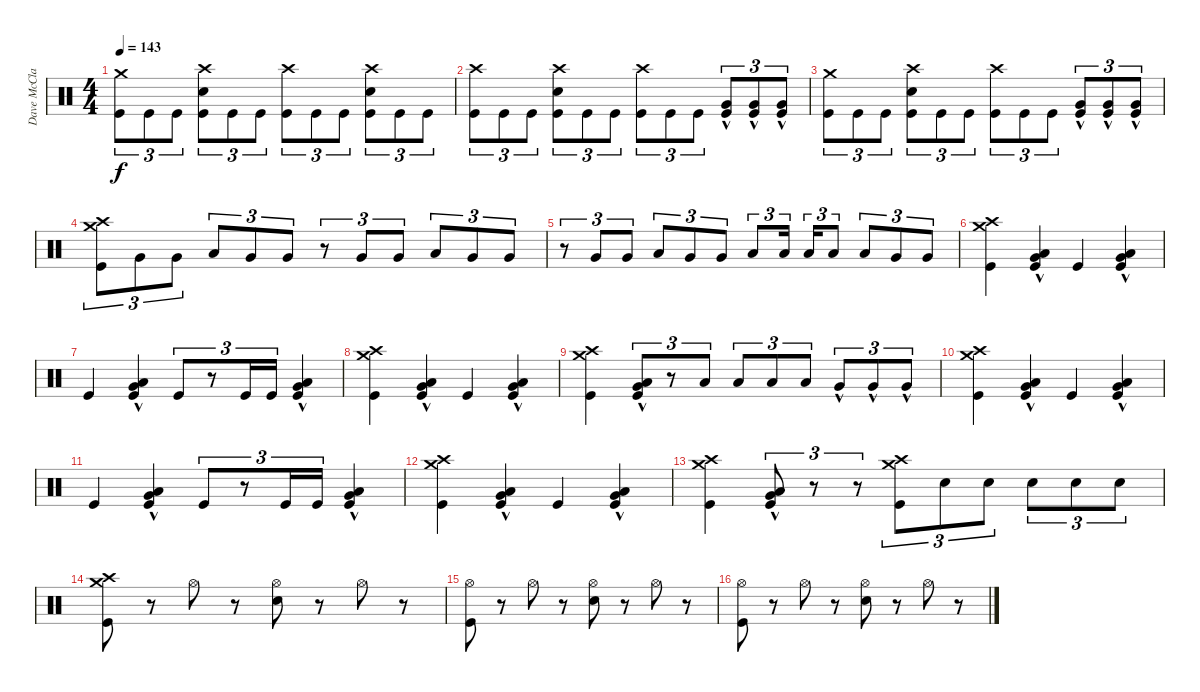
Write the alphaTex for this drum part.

\track ("Dave McClaine" "Dave McCla") {instrument percussion}
\staff {score}
\articulation defaults
\ts (4 4)
\tempo 143
\clef neutral
\ks c
("Kick (hit)" "Crash medium (hit)").8{tu (3 2) dy f} "Kick (hit)".8{tu (3 2)} "Kick (hit)".8{tu (3 2)} ("Kick (hit)" "Snare (hit) 2" "Crash high (hit)").8{tu (3 2)} "Kick (hit)".8{tu (3 2)} "Kick (hit)".8{tu (3 2)} ("Kick (hit)" "Crash high (hit)").8{tu (3 2)} "Kick (hit)".8{tu (3 2)} "Kick (hit)".8{tu (3 2)} ("Kick (hit)" "Snare (hit) 2" "Crash high (hit)").8{tu (3 2)} "Kick (hit)".8{tu (3 2)} "Kick (hit)".8{tu (3 2)} |
("Kick (hit)" "Crash high (hit)").8{tu (3 2)} "Kick (hit)".8{tu (3 2)} "Kick (hit)".8{tu (3 2)} ("Kick (hit)" "Snare (hit) 2" "Crash high (hit)").8{tu (3 2)} "Kick (hit)".8{tu (3 2)} "Kick (hit)".8{tu (3 2)} ("Kick (hit)" "Crash high (hit)").8{tu (3 2)} "Kick (hit)".8{tu (3 2)} "Kick (hit)".8{tu (3 2)} ("Kick (hit)" "Very Low Tom (hit)"{hac}).8{tu (3 2)} ("Kick (hit)" "Very Low Tom (hit)"{hac}).8{tu (3 2)} ("Kick (hit)" "Very Low Tom (hit)"{hac}).8{tu (3 2)} |
("Kick (hit)" "Crash medium (hit)").8{tu (3 2)} "Kick (hit)".8{tu (3 2)} "Kick (hit)".8{tu (3 2)} ("Kick (hit)" "Snare (hit) 2" "Crash high (hit)").8{tu (3 2)} "Kick (hit)".8{tu (3 2)} "Kick (hit)".8{tu (3 2)} ("Kick (hit)" "Crash high (hit)").8{tu (3 2)} "Kick (hit)".8{tu (3 2)} "Kick (hit)".8{tu (3 2)} ("Kick (hit)" "Very Low Tom (hit)"{hac}).8{tu (3 2)} ("Kick (hit)" "Very Low Tom (hit)"{hac}).8{tu (3 2)} ("Kick (hit)" "Very Low Tom (hit)"{hac}).8{tu (3 2)} |
("Kick (hit)" "Crash high (hit)" "Crash medium (hit)").8{tu (3 2)} "Very Low Tom (hit)".8{tu (3 2)} "Very Low Tom (hit)".8{tu (3 2)} "Low Tom (hit)".8{tu (3 2)} "Very Low Tom (hit)".8{tu (3 2)} "Very Low Tom (hit)".8{tu (3 2)} r.8{tu (3 2)} "Very Low Tom (hit)".8{tu (3 2)} "Very Low Tom (hit)".8{tu (3 2)} "Low Tom (hit)".8{tu (3 2)} "Very Low Tom (hit)".8{tu (3 2)} "Very Low Tom (hit)".8{tu (3 2)} |
r.8{tu (3 2)} "Very Low Tom (hit)".8{tu (3 2)} "Very Low Tom (hit)".8{tu (3 2)} "Low Tom (hit)".8{tu (3 2)} "Very Low Tom (hit)".8{tu (3 2)} "Very Low Tom (hit)".8{tu (3 2)} "Low Tom (hit)".8{tu (3 2)} "Low Tom (hit)".16{tu (3 2)} "Low Tom (hit)".16{tu (3 2)} "Low Tom (hit)".8{tu (3 2)} "Low Tom (hit)".8{tu (3 2)} "Very Low Tom (hit)".8{tu (3 2)} "Very Low Tom (hit)".8{tu (3 2)} |
("Kick (hit)" "Crash high (hit)" "Crash medium (hit)").4 ("Very Low Tom (hit)"{hac} "Low Floor Tom (hit)"{hac} "Kick (hit)").4 "Kick (hit)".4 ("Low Floor Tom (hit)"{hac} "Very Low Tom (hit)"{hac} "Kick (hit)").4 |
"Kick (hit)".4 ("Very Low Tom (hit)"{hac} "Low Floor Tom (hit)"{hac} "Kick (hit)").4 "Kick (hit)".8{tu (3 2)} r.8{tu (3 2)} "Kick (hit)".16{tu (3 2)} "Kick (hit)".16{tu (3 2)} ("Low Floor Tom (hit)"{hac} "Very Low Tom (hit)"{hac} "Kick (hit)").4 |
("Kick (hit)" "Crash high (hit)" "Crash medium (hit)").4 ("Very Low Tom (hit)"{hac} "Low Floor Tom (hit)"{hac} "Kick (hit)").4 "Kick (hit)".4 ("Low Floor Tom (hit)"{hac} "Very Low Tom (hit)"{hac} "Kick (hit)").4 |
("Kick (hit)" "Crash high (hit)" "Crash medium (hit)").4 ("Very Low Tom (hit)"{hac} "Low Floor Tom (hit)"{hac} "Kick (hit)").8{tu (3 2)} r.8{tu (3 2)} "Low Tom (hit)".8{tu (3 2)} "Low Tom (hit)".8{tu (3 2)} "Low Tom (hit)".8{tu (3 2)} "Low Tom (hit)".8{tu (3 2)} "Very Low Tom (hit)"{hac}.8{tu (3 2)} "Very Low Tom (hit)"{hac}.8{tu (3 2)} "Very Low Tom (hit)"{hac}.8{tu (3 2)} |
("Kick (hit)" "Crash high (hit)" "Crash medium (hit)").4 ("Very Low Tom (hit)"{hac} "Low Floor Tom (hit)"{hac} "Kick (hit)").4 "Kick (hit)".4 ("Low Floor Tom (hit)"{hac} "Very Low Tom (hit)"{hac} "Kick (hit)").4 |
"Kick (hit)".4 ("Very Low Tom (hit)"{hac} "Low Floor Tom (hit)"{hac} "Kick (hit)").4 "Kick (hit)".8{tu (3 2)} r.8{tu (3 2)} "Kick (hit)".16{tu (3 2)} "Kick (hit)".16{tu (3 2)} ("Low Floor Tom (hit)"{hac} "Very Low Tom (hit)"{hac} "Kick (hit)").4 |
("Kick (hit)" "Crash high (hit)" "Crash medium (hit)").4 ("Very Low Tom (hit)"{hac} "Low Floor Tom (hit)"{hac} "Kick (hit)").4 "Kick (hit)".4 ("Low Floor Tom (hit)"{hac} "Very Low Tom (hit)"{hac} "Kick (hit)").4 |
("Kick (hit)" "Crash high (hit)" "Crash medium (hit)").4 ("Very Low Tom (hit)"{hac} "Low Floor Tom (hit)"{hac} "Kick (hit)").8{tu (3 2)} r.8{tu (3 2)} r.8{tu (3 2)} ("Kick (hit)" "Crash medium (hit)" "Crash high (hit)").8{tu (3 2)} "Snare (hit) 2".8{tu (3 2)} "Snare (hit) 2".8{tu (3 2)} "Snare (hit) 2".8{tu (3 2)} "Snare (hit) 2".8{tu (3 2)} "Snare (hit) 2".8{tu (3 2)} |
("Kick (hit)" "Crash high (hit)" "Crash medium (hit)").8 r.8 "Hi-Hat (open)".8 r.8 ("Hi-Hat (open)" "Snare (hit) 2").8 r.8 "Hi-Hat (open)".8 r.8 |
("Kick (hit)" "Hi-Hat (open)").8 r.8 "Hi-Hat (open)".8 r.8 ("Hi-Hat (open)" "Snare (hit) 2").8 r.8 "Hi-Hat (open)".8 r.8 |
("Kick (hit)" "Hi-Hat (open)").8 r.8 "Hi-Hat (open)".8 r.8 ("Hi-Hat (open)" "Snare (hit) 2").8 r.8 "Hi-Hat (open)".8 r.8
